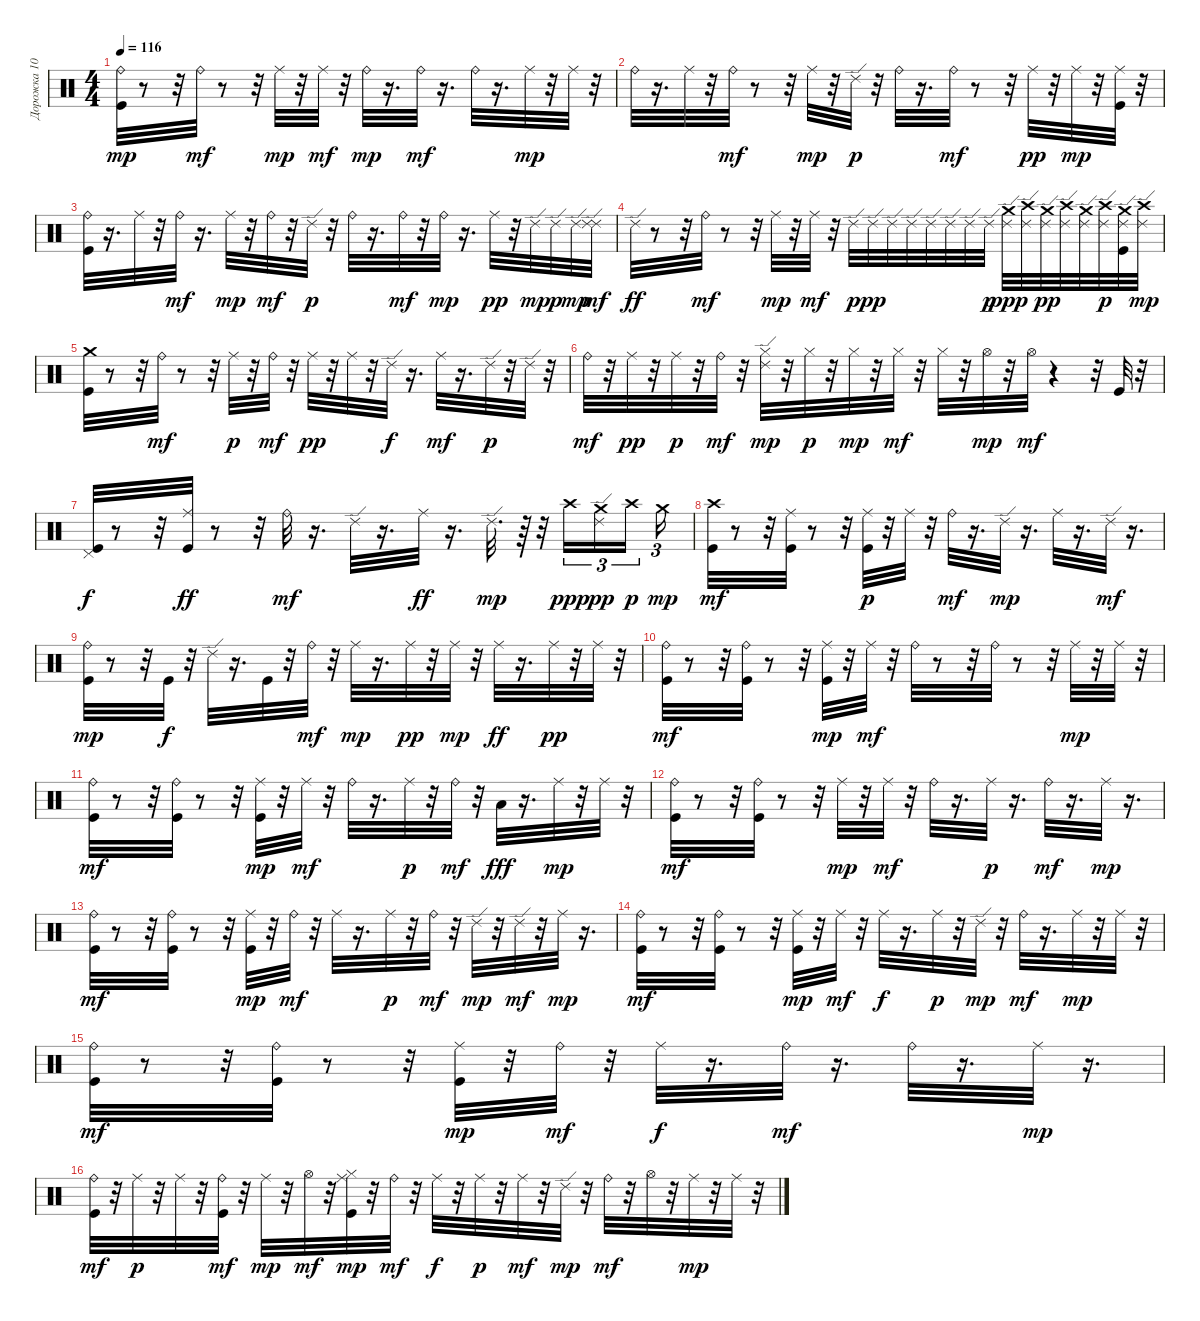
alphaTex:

\track ("Дорожка 10" "Дорожка 10") {instrument percussion}
\staff {score}
\articulation defaults
\ts (4 4)
\tempo 116
\clef neutral
\ks c
("Kick (hit)" "Ride (bell)").32{dy mp} r.8 r.32 "Ride (bell)".32{dy mf} r.8 r.32 "Ride (middle)".32{dy mp} r.32 "Ride (middle)".32{dy mf} r.32 "Ride (bell)".32{dy mp} r.16{d} "Ride (bell)".32{dy mf} r.16{d} "Ride (bell)".32 r.16{d} "Ride (middle)".32{dy mp} r.32 "Ride (middle)".32 r.32 |
"Ride (bell)".32 r.16{d} "Ride (middle)".32 r.32 "Ride (bell)".32{dy mf} r.8 r.32 "Ride (middle)".32{dy mp} r.32 "Ride (edge) 2".32{dy p} r.32 "Ride (bell)".32 r.16{d} "Ride (bell)".32{dy mf} r.8 r.32 "Ride (middle)".32{dy pp} r.32 "Ride (middle)".32{dy mp} r.32 ("Ride (middle)" "Kick (hit)").32 r.32 |
("Ride (bell)" "Kick (hit)").32 r.16{d} "Ride (middle)".32 r.32 "Ride (bell)".32{dy mf} r.16{d} "Ride (middle)".32{dy mp} r.32 "Ride (bell)".32{dy mf} r.32 "Ride (edge) 2".32{dy p} r.32 "Ride (bell)".32 r.16{d} "Ride (bell)".32{dy mf} r.32 "Ride (bell)".32{dy mp} r.16{d} "Ride (middle)".32{dy pp} r.32 "Ride (edge) 2".32{dy mp} "Ride (edge) 2".32{dy p} "Ride (edge) 2".32{dy mp} ("Ride (edge) 2" "Ride (edge) 2").32{dy mf} |
"Ride (edge) 2".32{dy ff} r.8 r.32 "Ride (bell)".32{dy mf} r.8 r.32 "Ride (middle)".32{dy mp} r.32 "Ride (middle)".32{dy mf} r.32 "Ride (edge) 2".32{dy p} "Ride (edge) 2".32{dy pp} "Ride (edge) 2".32 "Ride (edge) 2".32 "Ride (edge) 2".32 "Ride (edge) 2".32 "Ride (edge) 2".32 "Ride (edge) 2".32{dy p} ("Ride (edge) 2" "Crash medium (hit)").32{dy ppp} ("Ride (edge) 2" "Crash high (hit)").32 ("Ride (edge) 2" "Crash medium (hit)").32{dy pp} ("Ride (edge) 2" "Crash high (hit)").32 ("Ride (edge) 2" "Crash medium (hit)").32 ("Ride (edge) 2" "Crash high (hit)").32{dy p} ("Ride (edge) 2" "Crash medium (hit)" "Kick (hit)").32 ("Ride (edge) 2" "Crash high (hit)").32{dy mp} |
("Crash medium (hit)" "Kick (hit)").32 r.8 r.32 "Ride (bell)".32{dy mf} r.8 r.32 "Ride (middle)".32{dy p} r.32 "Ride (bell)".32{dy mf} r.32 "Ride (middle)".32{dy pp} r.32 "Ride (middle)".32 r.32 "Ride (edge) 2".32{dy f} r.16{d} "Ride (middle)".32{dy mf} r.16{d} "Ride (edge) 2".32{dy p} r.32 "Ride (edge) 2".32 r.32 |
"Ride (bell)".32{dy mf} r.32 "Ride (middle)".32{dy pp} r.32 "Ride (middle)".32{dy p} r.32 "Ride (bell)".32{dy mf} r.32 ("Hi-Hat (closed)" "Ride (edge) 2").32{dy mp} r.32 "Hi-Hat (closed)".32{dy p} r.32 "Hi-Hat (closed)".32{dy mp} r.32 "Hi-Hat (closed)".32{dy mf} r.32 "Hi-Hat (closed)".32 r.32 "Hi-Hat (open)".32{dy mp} r.32 "Hi-Hat (open)".32{dy mf} r.4 r.32 "Kick (hit)".32 r.32 |
("Kick (hit)" "Pedal Hi-Hat (hit)").32{dy f} r.8 r.32 ("Kick (hit)" "Ride (middle)").32{dy ff} r.8 r.32 "Ride (bell)".32{dy mf} r.16{d} "Ride (edge) 2".32 r.16{d} "Ride (middle)".32{dy ff} r.16{d} "Ride (edge) 2".32{d dy mp} r.64 r.32 "Crash high (hit)".16{tu (3 2) dy ppp} ("Ride (edge) 2" "Crash medium (hit)").16{tu (3 2) dy pp} "Crash high (hit)".16{tu (3 2) dy p beam splitsecondary} "Crash medium (hit)".16{tu (3 2) dy mp} |
("Kick (hit)" "Crash high (hit)").32{dy mf} r.8 r.32 ("Kick (hit)" "Ride (middle)").32 r.8 r.32 ("Kick (hit)" "Ride (middle)").32{dy p} r.32 "Ride (middle)".32 r.32 "Ride (bell)".32{dy mf} r.16{d} "Ride (edge) 2".32{dy mp} r.16{d} "Ride (middle)".32 r.16{d} "Ride (edge) 2".32{dy mf} r.16{d} |
("Kick (hit)" "Ride (bell)").32{dy mp} r.8 r.32 "Kick (hit)".32{dy f} r.32 "Ride (edge) 2".32 r.16{d} "Kick (hit)".32 r.32 "Ride (bell)".32{dy mf} r.32 "Ride (middle)".32{dy mp} r.16{d} "Ride (middle)".32{dy pp} r.32 "Ride (middle)".32{dy mp} r.32 "Ride (middle)".32{dy ff} r.16{d} "Ride (middle)".32{dy pp} r.32 "Ride (middle)".32 r.32 |
("Ride (bell)" "Kick (hit)").32{dy mf} r.8 r.32 ("Ride (bell)" "Kick (hit)").32 r.8 r.32 ("Ride (middle)" "Kick (hit)").32{dy mp} r.32 "Ride (middle)".32{dy mf} r.32 "Ride (bell)".32 r.8 r.32 "Ride (bell)".32 r.8 r.32 "Ride (middle)".32{dy mp} r.32 "Ride (middle)".32 r.32 |
("Kick (hit)" "Ride (bell)").32{dy mf} r.8 r.32 ("Kick (hit)" "Ride (bell)").32 r.8 r.32 ("Kick (hit)" "Ride (middle)").32{dy mp} r.32 "Ride (middle)".32{dy mf} r.32 "Ride (bell)".32 r.16{d} "Ride (middle)".32{dy p} r.32 "Ride (bell)".32{dy mf} r.32 "Low Tom (hit)".32{dy fff} r.16{d} "Ride (middle)".32{dy mp} r.32 "Ride (middle)".32 r.32 |
("Kick (hit)" "Ride (bell)").32{dy mf} r.8 r.32 ("Kick (hit)" "Ride (bell)").32 r.8 r.32 "Ride (middle)".32{dy mp} r.32 "Ride (middle)".32{dy mf} r.32 "Ride (bell)".32 r.16{d} "Ride (middle)".32{dy p} r.16{d} "Ride (bell)".32{dy mf} r.16{d} "Ride (middle)".32{dy mp} r.16{d} |
("Kick (hit)" "Ride (bell)").32{dy mf} r.8 r.32 ("Kick (hit)" "Ride (bell)").32 r.8 r.32 ("Kick (hit)" "Ride (middle)").32{dy mp} r.32 "Ride (bell)".32{dy mf} r.32 "Ride (middle)".32 r.16{d} "Ride (middle)".32{dy p} r.32 "Ride (bell)".32{dy mf} r.32 "Ride (edge) 2".32{dy mp} r.32 "Ride (edge) 2".32{dy mf} r.32 "Ride (middle)".32{dy mp} r.16{d} |
("Kick (hit)" "Ride (bell)").32{dy mf} r.8 r.32 ("Kick (hit)" "Ride (bell)").32 r.8 r.32 ("Kick (hit)" "Ride (middle)").32{dy mp} r.32 "Ride (middle)".32{dy mf} r.32 "Ride (middle)".32{dy f} r.16{d} "Ride (middle)".32{dy p} r.32 "Ride (edge) 2".32{dy mp} r.32 "Ride (bell)".32{dy mf} r.16{d} "Ride (middle)".32{dy mp} r.32 "Ride (middle)".32 r.32 |
("Kick (hit)" "Ride (bell)").32{dy mf} r.8 r.32 ("Kick (hit)" "Ride (bell)").32 r.8 r.32 ("Kick (hit)" "Ride (middle)").32{dy mp} r.32 "Ride (bell)".32{dy mf} r.32 "Ride (middle)".32{dy f} r.16{d} "Ride (bell)".32{dy mf} r.16{d} "Ride (bell)".32 r.16{d} "Ride (middle)".32{dy mp} r.16{d} |
("Kick (hit)" "Ride (bell)").32{dy mf} r.32 "Ride (middle)".32{dy p} r.32 "Ride (middle)".32 r.32 ("Kick (hit)" "Ride (bell)").32{dy mf} r.32 "Ride (middle)".32{dy mp} r.32 "Hi-Hat (open)".32{dy mf} r.32 ("Kick (hit)" "Ride (middle)" "Hi-Hat (closed)").32{dy mp} r.32 "Ride (bell)".32{dy mf} r.32 "Ride (middle)".32{dy f} r.32 "Ride (middle)".32{dy p} r.32 "Ride (middle)".32{dy mf} r.32 "Ride (edge) 2".32{dy mp} r.32 "Ride (bell)".32{dy mf} r.32 "Hi-Hat (open)".32 r.32 "Ride (middle)".32{dy mp} r.32 "Ride (middle)".32 r.32
